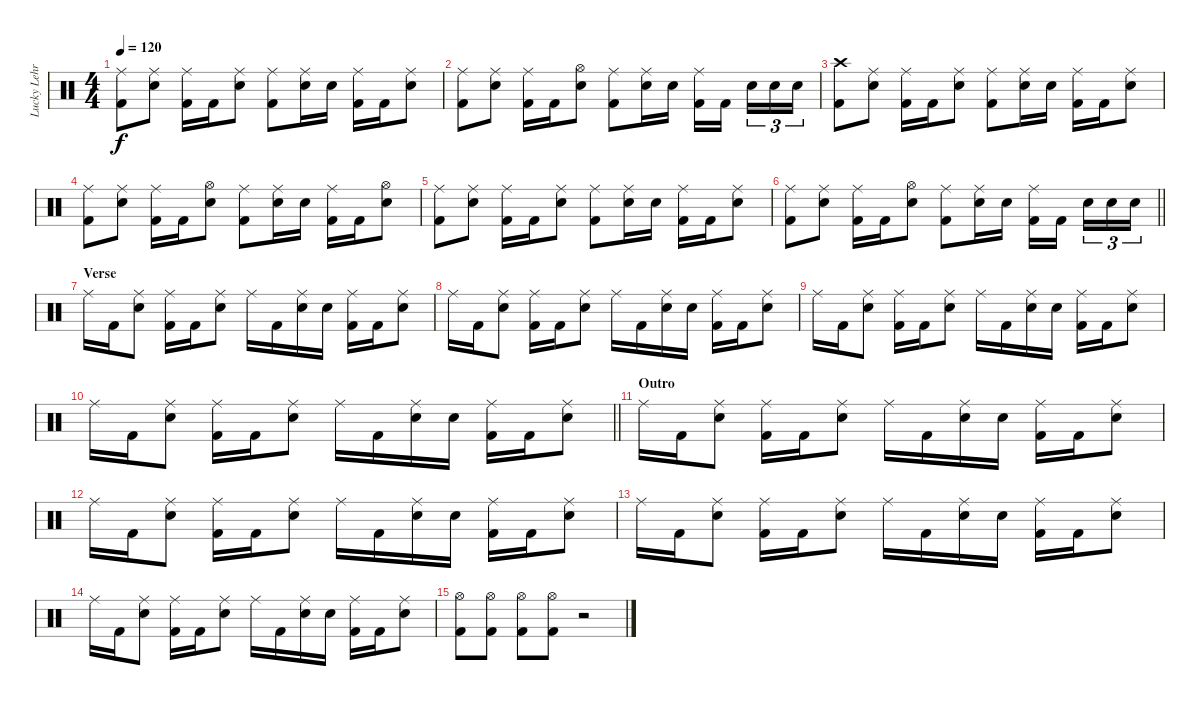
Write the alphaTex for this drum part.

\track ("Lucky Lehrer" "Lucky Lehr") {instrument percussion}
\staff {score}
\articulation defaults
\ts (4 4)
\tempo 120
\clef neutral
\ks c
("Ride (middle)" "Kick (hit) 2").8{dy f} ("Ride (middle)" "Electric Snare (hit)").8 ("Ride (middle)" "Kick (hit) 2").16 "Kick (hit) 2".16 ("Ride (middle)" "Electric Snare (hit)").8 ("Ride (middle)" "Kick (hit) 2").8 ("Ride (middle)" "Electric Snare (hit)").16 "Electric Snare (hit)".16 ("Ride (middle)" "Kick (hit) 2").16 "Kick (hit) 2".16 ("Ride (middle)" "Electric Snare (hit)").8 |
("Ride (middle)" "Kick (hit) 2").8 ("Ride (middle)" "Electric Snare (hit)").8 ("Ride (middle)" "Kick (hit) 2").16 "Kick (hit) 2".16 ("Hi-Hat (open)" "Electric Snare (hit)").8 ("Ride (middle)" "Kick (hit) 2").8 ("Ride (middle)" "Electric Snare (hit)").16 "Electric Snare (hit)".16 ("Ride (middle)" "Kick (hit) 2").16 "Kick (hit) 2".16{beam splitsecondary} "Electric Snare (hit)".16{tu (3 2)} "Electric Snare (hit)".16{tu (3 2)} "Electric Snare (hit)".16{tu (3 2)} |
("Crash high (hit)" "Kick (hit) 2").8 ("Ride (middle)" "Electric Snare (hit)").8 ("Ride (middle)" "Kick (hit) 2").16 "Kick (hit) 2".16 ("Ride (middle)" "Electric Snare (hit)").8 ("Ride (middle)" "Kick (hit) 2").8 ("Ride (middle)" "Electric Snare (hit)").16 "Electric Snare (hit)".16 ("Ride (middle)" "Kick (hit) 2").16 "Kick (hit) 2".16 ("Ride (middle)" "Electric Snare (hit)").8 |
("Ride (middle)" "Kick (hit) 2").8 ("Ride (middle)" "Electric Snare (hit)").8 ("Ride (middle)" "Kick (hit) 2").16 "Kick (hit) 2".16 ("Hi-Hat (open)" "Electric Snare (hit)").8 ("Ride (middle)" "Kick (hit) 2").8 ("Ride (middle)" "Electric Snare (hit)").16 "Electric Snare (hit)".16 ("Ride (middle)" "Kick (hit) 2").16 "Kick (hit) 2".16 ("Hi-Hat (open)" "Electric Snare (hit)").8 |
("Ride (middle)" "Kick (hit) 2").8 ("Ride (middle)" "Electric Snare (hit)").8 ("Ride (middle)" "Kick (hit) 2").16 "Kick (hit) 2".16 ("Ride (middle)" "Electric Snare (hit)").8 ("Ride (middle)" "Kick (hit) 2").8 ("Ride (middle)" "Electric Snare (hit)").16 "Electric Snare (hit)".16 ("Ride (middle)" "Kick (hit) 2").16 "Kick (hit) 2".16 ("Ride (middle)" "Electric Snare (hit)").8 |
\barLineRight lightlight
("Ride (middle)" "Kick (hit) 2").8 ("Ride (middle)" "Electric Snare (hit)").8 ("Ride (middle)" "Kick (hit) 2").16 "Kick (hit) 2".16 ("Hi-Hat (open)" "Electric Snare (hit)").8 ("Ride (middle)" "Kick (hit) 2").8 ("Ride (middle)" "Electric Snare (hit)").16 "Electric Snare (hit)".16 ("Ride (middle)" "Kick (hit) 2").16 "Kick (hit) 2".16{beam splitsecondary} "Electric Snare (hit)".16{tu (3 2)} "Electric Snare (hit)".16{tu (3 2)} "Electric Snare (hit)".16{tu (3 2)} |
\section ("" "Verse")
"Ride (middle)".16 "Kick (hit) 2".16 ("Ride (middle)" "Electric Snare (hit)").8 ("Ride (middle)" "Kick (hit) 2").16 "Kick (hit) 2".16 ("Ride (middle)" "Electric Snare (hit)").8 "Ride (middle)".16 "Kick (hit) 2".16 ("Ride (middle)" "Electric Snare (hit)").16 "Electric Snare (hit)".16 ("Ride (middle)" "Kick (hit) 2").16 "Kick (hit) 2".16 ("Ride (middle)" "Electric Snare (hit)").8 |
"Ride (middle)".16 "Kick (hit) 2".16 ("Ride (middle)" "Electric Snare (hit)").8 ("Ride (middle)" "Kick (hit) 2").16 "Kick (hit) 2".16 ("Ride (middle)" "Electric Snare (hit)").8 "Ride (middle)".16 "Kick (hit) 2".16 ("Ride (middle)" "Electric Snare (hit)").16 "Electric Snare (hit)".16 ("Ride (middle)" "Kick (hit) 2").16 "Kick (hit) 2".16 ("Ride (middle)" "Electric Snare (hit)").8 |
"Ride (middle)".16 "Kick (hit) 2".16 ("Ride (middle)" "Electric Snare (hit)").8 ("Ride (middle)" "Kick (hit) 2").16 "Kick (hit) 2".16 ("Ride (middle)" "Electric Snare (hit)").8 "Ride (middle)".16 "Kick (hit) 2".16 ("Ride (middle)" "Electric Snare (hit)").16 "Electric Snare (hit)".16 ("Ride (middle)" "Kick (hit) 2").16 "Kick (hit) 2".16 ("Ride (middle)" "Electric Snare (hit)").8 |
\barLineRight lightlight "Ride (middle)".16 "Kick (hit) 2".16
("Ride (middle)" "Electric Snare (hit)").8 ("Ride (middle)" "Kick (hit) 2").16 "Kick (hit) 2".16 ("Ride (middle)" "Electric Snare (hit)").8 "Ride (middle)".16 "Kick (hit) 2".16 ("Ride (middle)" "Electric Snare (hit)").16 "Electric Snare (hit)".16 ("Ride (middle)" "Kick (hit) 2").16 "Kick (hit) 2".16 ("Ride (middle)" "Electric Snare (hit)").8 |
\section ("" "Outro")
"Ride (middle)".16 "Kick (hit) 2".16 ("Ride (middle)" "Electric Snare (hit)").8 ("Ride (middle)" "Kick (hit) 2").16 "Kick (hit) 2".16 ("Ride (middle)" "Electric Snare (hit)").8 "Ride (middle)".16 "Kick (hit) 2".16 ("Ride (middle)" "Electric Snare (hit)").16 "Electric Snare (hit)".16 ("Ride (middle)" "Kick (hit) 2").16 "Kick (hit) 2".16 ("Ride (middle)" "Electric Snare (hit)").8 |
"Ride (middle)".16 "Kick (hit) 2".16 ("Ride (middle)" "Electric Snare (hit)").8 ("Ride (middle)" "Kick (hit) 2").16 "Kick (hit) 2".16 ("Ride (middle)" "Electric Snare (hit)").8 "Ride (middle)".16 "Kick (hit) 2".16 ("Ride (middle)" "Electric Snare (hit)").16 "Electric Snare (hit)".16 ("Ride (middle)" "Kick (hit) 2").16 "Kick (hit) 2".16 ("Ride (middle)" "Electric Snare (hit)").8 |
"Ride (middle)".16 "Kick (hit) 2".16 ("Ride (middle)" "Electric Snare (hit)").8 ("Ride (middle)" "Kick (hit) 2").16 "Kick (hit) 2".16 ("Ride (middle)" "Electric Snare (hit)").8 "Ride (middle)".16 "Kick (hit) 2".16 ("Ride (middle)" "Electric Snare (hit)").16 "Electric Snare (hit)".16 ("Ride (middle)" "Kick (hit) 2").16 "Kick (hit) 2".16 ("Ride (middle)" "Electric Snare (hit)").8 |
"Ride (middle)".16 "Kick (hit) 2".16 ("Ride (middle)" "Electric Snare (hit)").8 ("Ride (middle)" "Kick (hit) 2").16 "Kick (hit) 2".16 ("Ride (middle)" "Electric Snare (hit)").8 "Ride (middle)".16 "Kick (hit) 2".16 ("Ride (middle)" "Electric Snare (hit)").16 "Electric Snare (hit)".16 ("Ride (middle)" "Kick (hit) 2").16 "Kick (hit) 2".16 ("Ride (middle)" "Electric Snare (hit)").8 |
("Hi-Hat (open)" "Kick (hit) 2").8 ("Hi-Hat (open)" "Kick (hit) 2").8 ("Hi-Hat (open)" "Kick (hit) 2").8 ("Hi-Hat (open)" "Kick (hit) 2").8 r.2
